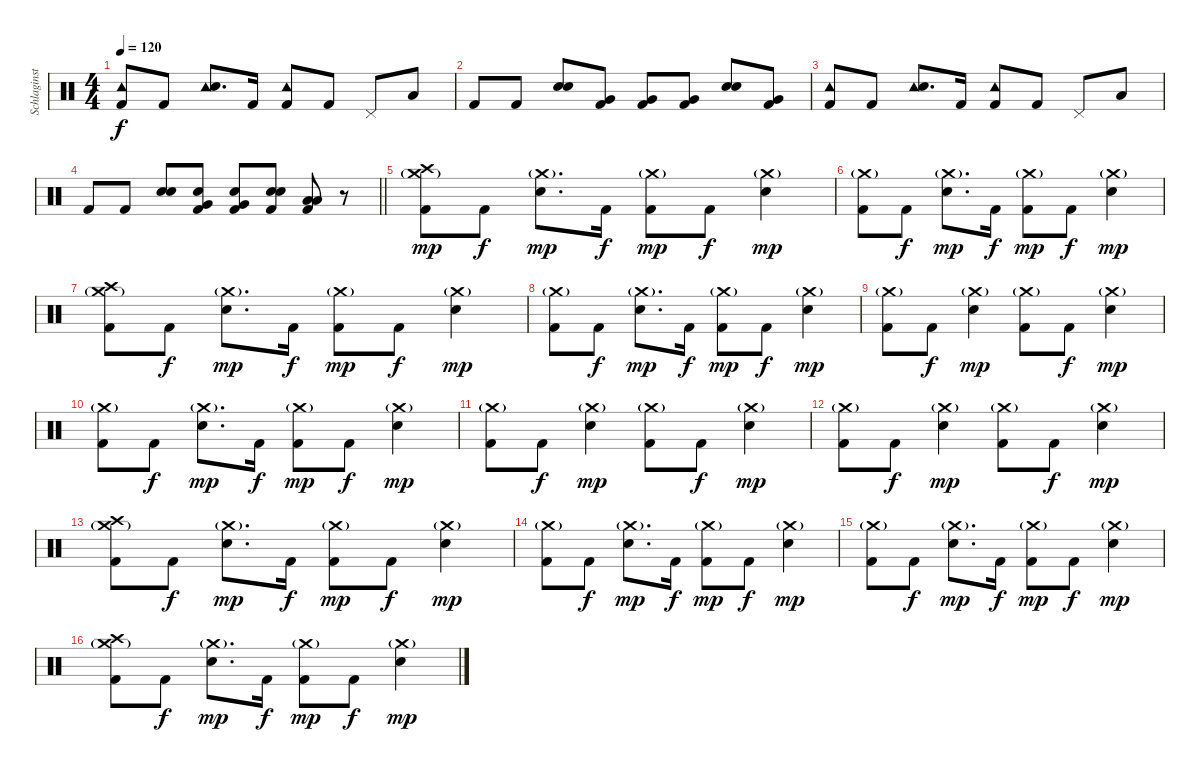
\track ("Schlaginstrumente - Auswahl" "Schlaginst") {instrument percussion}
\staff {score}
\articulation defaults
\ts (4 4)
\tempo 120
\clef neutral
\ks c
("Tambourine (hit)" "Kick (hit) 2").8{dy f} "Kick (hit) 2".8 ("Tambourine (hit)" "Snare (hit) 2").8{d} "Kick (hit) 2".16 ("Tambourine (hit)" "Kick (hit) 2").8 "Kick (hit) 2".8 "Pedal Hi-Hat (hit)".8 "Low Tom (hit)".8 |
"Kick (hit) 2".8 "Kick (hit) 2".8 ("Snare (hit) 2" "Snare (hit) 2").8{bd 120} ("Very Low Tom (hit)" "Kick (hit) 2").8 ("Very Low Tom (hit)" "Kick (hit) 2").8 ("Very Low Tom (hit)" "Kick (hit) 2").8 ("Snare (hit) 2" "Snare (hit) 2").8{bd 120} ("Very Low Tom (hit)" "Kick (hit) 2").8 |
("Tambourine (hit)" "Kick (hit) 2").8 "Kick (hit) 2".8 ("Tambourine (hit)" "Snare (hit) 2").8{d} "Kick (hit) 2".16 ("Tambourine (hit)" "Kick (hit) 2").8 "Kick (hit) 2".8 "Pedal Hi-Hat (hit)".8 "Low Tom (hit)".8 |
\barLineRight lightlight "Kick (hit) 2".8 "Kick (hit) 2".8
("Snare (hit) 2" "Snare (hit) 2").8{bd 120} ("Snare (hit) 2" "Very Low Tom (hit)" "Kick (hit) 2").8 ("Snare (hit) 2" "Very Low Tom (hit)" "Kick (hit) 2").8 ("Snare (hit) 2" "Snare (hit) 2" "Kick (hit) 2").8{bd 120} ("Low Floor Tom (hit)" "Low Tom (hit)" "Kick (hit) 2").8 r.8 |
("Crash medium (hit)"{g} "Crash high (hit)" "Kick (hit) 2").8{dy mp} "Kick (hit) 2".8{dy f} ("Crash medium (hit)"{g} "Snare (hit) 2").8{d dy mp} "Kick (hit) 2".16{dy f} ("Crash medium (hit)"{g} "Kick (hit) 2").8{dy mp} "Kick (hit) 2".8{dy f} ("Crash medium (hit)"{g} "Snare (hit) 2").4{dy mp} |
("Crash medium (hit)"{g} "Kick (hit) 2").8 "Kick (hit) 2".8{dy f} ("Crash medium (hit)"{g} "Snare (hit) 2").8{d dy mp} "Kick (hit) 2".16{dy f} ("Crash medium (hit)"{g} "Kick (hit) 2").8{dy mp} "Kick (hit) 2".8{dy f} ("Crash medium (hit)"{g} "Snare (hit) 2").4{dy mp} |
("Crash medium (hit)"{g} "Crash high (hit)" "Kick (hit) 2").8 "Kick (hit) 2".8{dy f} ("Crash medium (hit)"{g} "Snare (hit) 2").8{d dy mp} "Kick (hit) 2".16{dy f} ("Crash medium (hit)"{g} "Kick (hit) 2").8{dy mp} "Kick (hit) 2".8{dy f} ("Crash medium (hit)"{g} "Snare (hit) 2").4{dy mp} |
("Crash medium (hit)"{g} "Kick (hit) 2").8 "Kick (hit) 2".8{dy f} ("Crash medium (hit)"{g} "Snare (hit) 2").8{d dy mp} "Kick (hit) 2".16{dy f} ("Crash medium (hit)"{g} "Kick (hit) 2").8{dy mp} "Kick (hit) 2".8{dy f} ("Crash medium (hit)"{g} "Snare (hit) 2").4{dy mp} |
("Crash medium (hit)"{g} "Kick (hit) 2").8 "Kick (hit) 2".8{dy f} ("Crash medium (hit)"{g} "Snare (hit) 2").4{dy mp} ("Crash medium (hit)"{g} "Kick (hit) 2").8 "Kick (hit) 2".8{dy f} ("Crash medium (hit)"{g} "Snare (hit) 2").4{dy mp} |
("Crash medium (hit)"{g} "Kick (hit) 2").8 "Kick (hit) 2".8{dy f} ("Crash medium (hit)"{g} "Snare (hit) 2").8{d dy mp} "Kick (hit) 2".16{dy f} ("Crash medium (hit)"{g} "Kick (hit) 2").8{dy mp} "Kick (hit) 2".8{dy f} ("Crash medium (hit)"{g} "Snare (hit) 2").4{dy mp} |
("Crash medium (hit)"{g} "Kick (hit) 2").8 "Kick (hit) 2".8{dy f} ("Crash medium (hit)"{g} "Snare (hit) 2").4{dy mp} ("Crash medium (hit)"{g} "Kick (hit) 2").8 "Kick (hit) 2".8{dy f} ("Crash medium (hit)"{g} "Snare (hit) 2").4{dy mp} |
("Crash medium (hit)"{g} "Kick (hit) 2").8 "Kick (hit) 2".8{dy f} ("Crash medium (hit)"{g} "Snare (hit) 2").4{dy mp} ("Crash medium (hit)"{g} "Kick (hit) 2").8 "Kick (hit) 2".8{dy f} ("Crash medium (hit)"{g} "Snare (hit) 2").4{dy mp} |
("Crash medium (hit)"{g} "Crash high (hit)" "Kick (hit) 2").8 "Kick (hit) 2".8{dy f} ("Crash medium (hit)"{g} "Snare (hit) 2").8{d dy mp} "Kick (hit) 2".16{dy f} ("Crash medium (hit)"{g} "Kick (hit) 2").8{dy mp} "Kick (hit) 2".8{dy f} ("Crash medium (hit)"{g} "Snare (hit) 2").4{dy mp} |
("Crash medium (hit)"{g} "Kick (hit) 2").8 "Kick (hit) 2".8{dy f} ("Crash medium (hit)"{g} "Snare (hit) 2").8{d dy mp} "Kick (hit) 2".16{dy f} ("Crash medium (hit)"{g} "Kick (hit) 2").8{dy mp} "Kick (hit) 2".8{dy f} ("Crash medium (hit)"{g} "Snare (hit) 2").4{dy mp} |
("Crash medium (hit)"{g} "Kick (hit) 2").8 "Kick (hit) 2".8{dy f} ("Crash medium (hit)"{g} "Snare (hit) 2").8{d dy mp} "Kick (hit) 2".16{dy f} ("Crash medium (hit)"{g} "Kick (hit) 2").8{dy mp} "Kick (hit) 2".8{dy f} ("Crash medium (hit)"{g} "Snare (hit) 2").4{dy mp} |
("Crash medium (hit)"{g} "Crash high (hit)" "Kick (hit) 2").8 "Kick (hit) 2".8{dy f} ("Crash medium (hit)"{g} "Snare (hit) 2").8{d dy mp} "Kick (hit) 2".16{dy f} ("Crash medium (hit)"{g} "Kick (hit) 2").8{dy mp} "Kick (hit) 2".8{dy f} ("Crash medium (hit)"{g} "Snare (hit) 2").4{dy mp}
